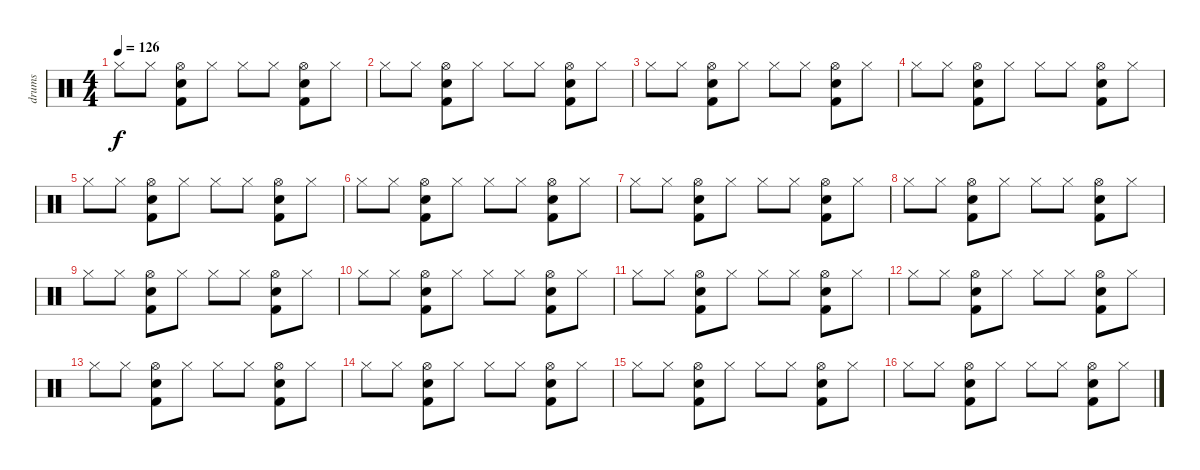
\track ("drums" "drums") {instrument percussion}
\staff {score}
\articulation defaults
\ts (4 4)
\tempo 126
\clef neutral
\ks c "Hi-Hat (closed)".8{dy f} "Hi-Hat (closed)".8
("Snare (hit) 2" "Hi-Hat (open)" "Kick (hit) 2").8 "Hi-Hat (closed)".8 "Hi-Hat (closed)".8 "Hi-Hat (closed)".8 ("Snare (hit) 2" "Hi-Hat (open)" "Kick (hit) 2").8 "Hi-Hat (closed)".8 |
"Hi-Hat (closed)".8 "Hi-Hat (closed)".8 ("Snare (hit) 2" "Hi-Hat (open)" "Kick (hit) 2").8 "Hi-Hat (closed)".8 "Hi-Hat (closed)".8 "Hi-Hat (closed)".8 ("Snare (hit) 2" "Hi-Hat (open)" "Kick (hit) 2").8 "Hi-Hat (closed)".8 |
"Hi-Hat (closed)".8 "Hi-Hat (closed)".8 ("Snare (hit) 2" "Hi-Hat (open)" "Kick (hit) 2").8 "Hi-Hat (closed)".8 "Hi-Hat (closed)".8 "Hi-Hat (closed)".8 ("Snare (hit) 2" "Hi-Hat (open)" "Kick (hit) 2").8 "Hi-Hat (closed)".8 |
"Hi-Hat (closed)".8 "Hi-Hat (closed)".8 ("Snare (hit) 2" "Hi-Hat (open)" "Kick (hit) 2").8 "Hi-Hat (closed)".8 "Hi-Hat (closed)".8 "Hi-Hat (closed)".8 ("Snare (hit) 2" "Hi-Hat (open)" "Kick (hit) 2").8 "Hi-Hat (closed)".8 |
"Hi-Hat (closed)".8 "Hi-Hat (closed)".8 ("Snare (hit) 2" "Hi-Hat (open)" "Kick (hit) 2").8 "Hi-Hat (closed)".8 "Hi-Hat (closed)".8 "Hi-Hat (closed)".8 ("Snare (hit) 2" "Hi-Hat (open)" "Kick (hit) 2").8 "Hi-Hat (closed)".8 |
"Hi-Hat (closed)".8 "Hi-Hat (closed)".8 ("Snare (hit) 2" "Hi-Hat (open)" "Kick (hit) 2").8 "Hi-Hat (closed)".8 "Hi-Hat (closed)".8 "Hi-Hat (closed)".8 ("Snare (hit) 2" "Hi-Hat (open)" "Kick (hit) 2").8 "Hi-Hat (closed)".8 |
"Hi-Hat (closed)".8 "Hi-Hat (closed)".8 ("Snare (hit) 2" "Hi-Hat (open)" "Kick (hit) 2").8 "Hi-Hat (closed)".8 "Hi-Hat (closed)".8 "Hi-Hat (closed)".8 ("Snare (hit) 2" "Hi-Hat (open)" "Kick (hit) 2").8 "Hi-Hat (closed)".8 |
"Hi-Hat (closed)".8 "Hi-Hat (closed)".8 ("Snare (hit) 2" "Hi-Hat (open)" "Kick (hit) 2").8 "Hi-Hat (closed)".8 "Hi-Hat (closed)".8 "Hi-Hat (closed)".8 ("Snare (hit) 2" "Hi-Hat (open)" "Kick (hit) 2").8 "Hi-Hat (closed)".8 |
"Hi-Hat (closed)".8 "Hi-Hat (closed)".8 ("Snare (hit) 2" "Hi-Hat (open)" "Kick (hit) 2").8 "Hi-Hat (closed)".8 "Hi-Hat (closed)".8 "Hi-Hat (closed)".8 ("Snare (hit) 2" "Hi-Hat (open)" "Kick (hit) 2").8 "Hi-Hat (closed)".8 |
"Hi-Hat (closed)".8 "Hi-Hat (closed)".8 ("Snare (hit) 2" "Hi-Hat (open)" "Kick (hit) 2").8 "Hi-Hat (closed)".8 "Hi-Hat (closed)".8 "Hi-Hat (closed)".8 ("Snare (hit) 2" "Hi-Hat (open)" "Kick (hit) 2").8 "Hi-Hat (closed)".8 |
"Hi-Hat (closed)".8 "Hi-Hat (closed)".8 ("Snare (hit) 2" "Hi-Hat (open)" "Kick (hit) 2").8 "Hi-Hat (closed)".8 "Hi-Hat (closed)".8 "Hi-Hat (closed)".8 ("Snare (hit) 2" "Hi-Hat (open)" "Kick (hit) 2").8 "Hi-Hat (closed)".8 |
"Hi-Hat (closed)".8 "Hi-Hat (closed)".8 ("Snare (hit) 2" "Hi-Hat (open)" "Kick (hit) 2").8 "Hi-Hat (closed)".8 "Hi-Hat (closed)".8 "Hi-Hat (closed)".8 ("Snare (hit) 2" "Hi-Hat (open)" "Kick (hit) 2").8 "Hi-Hat (closed)".8 |
"Hi-Hat (closed)".8 "Hi-Hat (closed)".8 ("Snare (hit) 2" "Hi-Hat (open)" "Kick (hit) 2").8 "Hi-Hat (closed)".8 "Hi-Hat (closed)".8 "Hi-Hat (closed)".8 ("Snare (hit) 2" "Hi-Hat (open)" "Kick (hit) 2").8 "Hi-Hat (closed)".8 |
"Hi-Hat (closed)".8 "Hi-Hat (closed)".8 ("Snare (hit) 2" "Hi-Hat (open)" "Kick (hit) 2").8 "Hi-Hat (closed)".8 "Hi-Hat (closed)".8 "Hi-Hat (closed)".8 ("Snare (hit) 2" "Hi-Hat (open)" "Kick (hit) 2").8 "Hi-Hat (closed)".8 |
"Hi-Hat (closed)".8 "Hi-Hat (closed)".8 ("Snare (hit) 2" "Hi-Hat (open)" "Kick (hit) 2").8 "Hi-Hat (closed)".8 "Hi-Hat (closed)".8 "Hi-Hat (closed)".8 ("Snare (hit) 2" "Hi-Hat (open)" "Kick (hit) 2").8 "Hi-Hat (closed)".8 |
"Hi-Hat (closed)".8 "Hi-Hat (closed)".8 ("Snare (hit) 2" "Hi-Hat (open)" "Kick (hit) 2").8 "Hi-Hat (closed)".8 "Hi-Hat (closed)".8 "Hi-Hat (closed)".8 ("Snare (hit) 2" "Hi-Hat (open)" "Kick (hit) 2").8 "Hi-Hat (closed)".8
